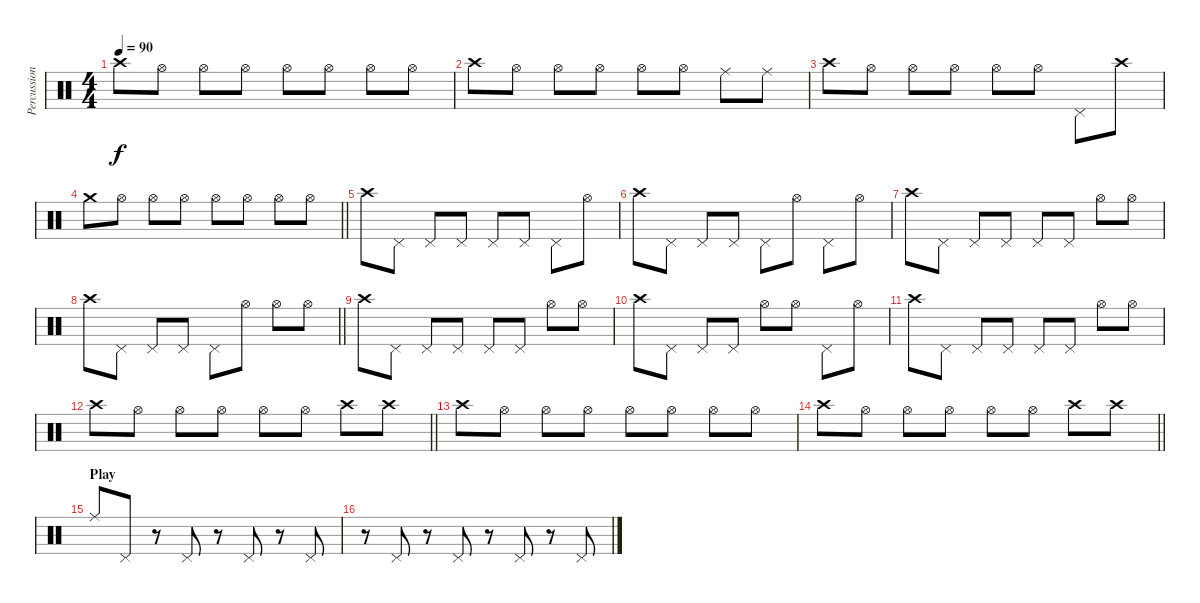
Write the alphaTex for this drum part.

\track ("Percussion" "Percussion") {instrument percussion}
\staff
\articulation defaults
\ts (4 4)
\tempo 90
\clef neutral
\ks c "Crash high (hit)".8{dy f} "Hi-Hat (open)".8 "Hi-Hat (open)".8 "Hi-Hat (open)".8 "Hi-Hat (open)".8 "Hi-Hat (open)".8 "Hi-Hat (open)".8 "Hi-Hat (open)".8
|
"Crash high (hit)".8 "Hi-Hat (open)".8 "Hi-Hat (open)".8 "Hi-Hat (open)".8 "Hi-Hat (open)".8 "Hi-Hat (open)".8 "Ride (middle)".8 "Ride (middle)".8 |
"Crash high (hit)".8 "Hi-Hat (open)".8 "Hi-Hat (open)".8 "Hi-Hat (open)".8 "Hi-Hat (open)".8 "Hi-Hat (open)".8 "Pedal Hi-Hat (hit)".8 "Crash high (hit)".8 |
\barLineRight lightlight "Crash medium (hit)".8 "Hi-Hat (open)".8 "Hi-Hat (open)".8 "Hi-Hat (open)".8 "Hi-Hat (open)".8 "Hi-Hat (open)".8 "Hi-Hat (open)".8 "Hi-Hat (open)".8
|
"Crash high (hit)".8 "Pedal Hi-Hat (hit)".8 "Pedal Hi-Hat (hit)".8 "Pedal Hi-Hat (hit)".8 "Pedal Hi-Hat (hit)".8 "Pedal Hi-Hat (hit)".8 "Pedal Hi-Hat (hit)".8 "Hi-Hat (open)".8 |
"Crash high (hit)".8 "Pedal Hi-Hat (hit)".8 "Pedal Hi-Hat (hit)".8 "Pedal Hi-Hat (hit)".8 "Pedal Hi-Hat (hit)".8 "Hi-Hat (open)".8 "Pedal Hi-Hat (hit)".8 "Hi-Hat (open)".8 |
"Crash high (hit)".8 "Pedal Hi-Hat (hit)".8 "Pedal Hi-Hat (hit)".8 "Pedal Hi-Hat (hit)".8 "Pedal Hi-Hat (hit)".8 "Pedal Hi-Hat (hit)".8 "Hi-Hat (open)".8 "Hi-Hat (open)".8 |
\barLineRight lightlight "Crash high (hit)".8 "Pedal Hi-Hat (hit)".8 "Pedal Hi-Hat (hit)".8 "Pedal Hi-Hat (hit)".8 "Pedal Hi-Hat (hit)".8 "Hi-Hat (open)".8 "Hi-Hat (open)".8 "Hi-Hat (open)".8
|
"Crash high (hit)".8 "Pedal Hi-Hat (hit)".8 "Pedal Hi-Hat (hit)".8 "Pedal Hi-Hat (hit)".8 "Pedal Hi-Hat (hit)".8 "Pedal Hi-Hat (hit)".8 "Hi-Hat (open)".8 "Hi-Hat (open)".8 |
"Crash high (hit)".8 "Pedal Hi-Hat (hit)".8 "Pedal Hi-Hat (hit)".8 "Pedal Hi-Hat (hit)".8 "Hi-Hat (open)".8 "Hi-Hat (open)".8 "Pedal Hi-Hat (hit)".8 "Hi-Hat (open)".8 |
"Crash high (hit)".8 "Pedal Hi-Hat (hit)".8 "Pedal Hi-Hat (hit)".8 "Pedal Hi-Hat (hit)".8 "Pedal Hi-Hat (hit)".8 "Pedal Hi-Hat (hit)".8 "Hi-Hat (open)".8 "Hi-Hat (open)".8 |
\barLineRight lightlight "Crash high (hit)".8 "Hi-Hat (open)".8 "Hi-Hat (open)".8 "Hi-Hat (open)".8 "Hi-Hat (open)".8 "Hi-Hat (open)".8 "Crash high (hit)".8 "Crash high (hit)".8
|
"Crash high (hit)".8 "Hi-Hat (open)".8 "Hi-Hat (open)".8 "Hi-Hat (open)".8 "Hi-Hat (open)".8 "Hi-Hat (open)".8 "Hi-Hat (open)".8 "Hi-Hat (open)".8 |
\barLineRight lightlight "Crash high (hit)".8 "Hi-Hat (open)".8 "Hi-Hat (open)".8 "Hi-Hat (open)".8 "Hi-Hat (open)".8 "Hi-Hat (open)".8 "Crash high (hit)".8 "Crash high (hit)".8
|
\section ("" "Play")
"Ride (middle)".8 "Pedal Hi-Hat (hit)".8 r.8 "Pedal Hi-Hat (hit)".8 r.8 "Pedal Hi-Hat (hit)".8 r.8 "Pedal Hi-Hat (hit)".8 |
r.8 "Pedal Hi-Hat (hit)".8 r.8 "Pedal Hi-Hat (hit)".8 r.8 "Pedal Hi-Hat (hit)".8 r.8 "Pedal Hi-Hat (hit)".8
